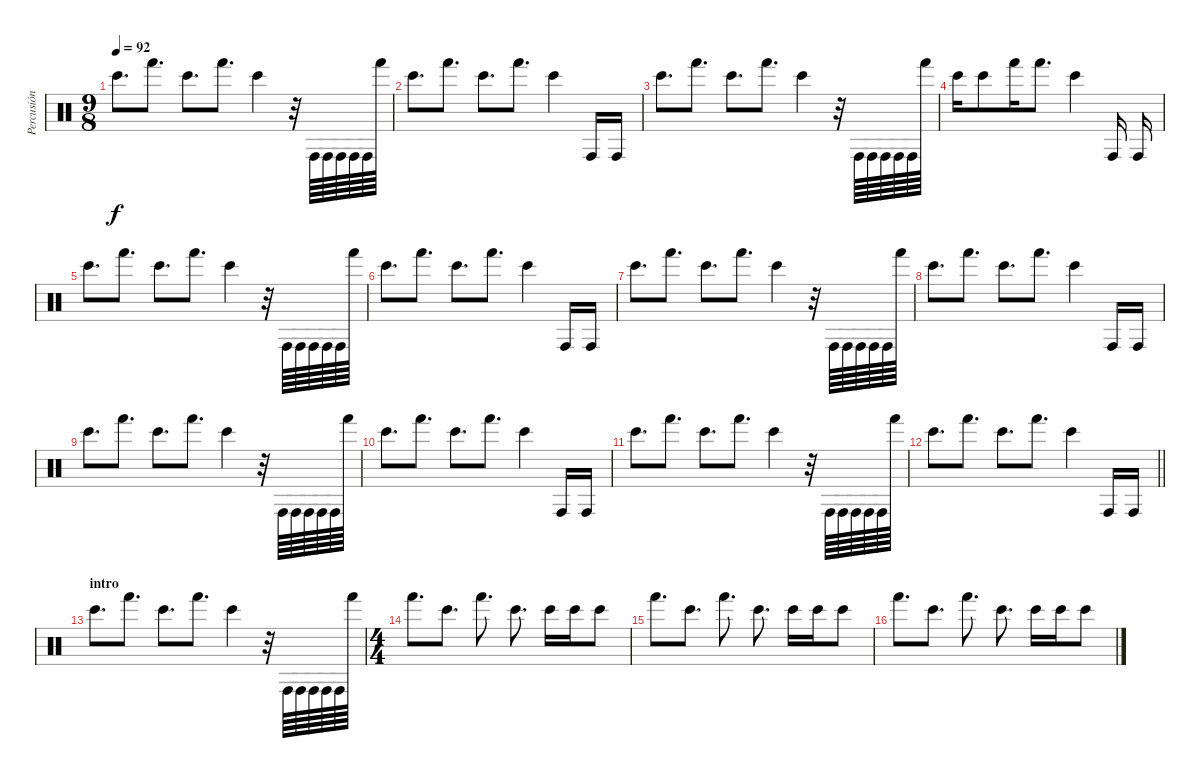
\track ("Percusión" "Percusión") {instrument percussion}
\staff {score}
\articulation defaults
\ts (9 8)
\tempo 92
\clef neutral
\ks c "Bongo High (hit)".8{d dy f} "Hand (hit)".8{d} "Bongo High (hit)".8{d} "Hand (hit)".8{d} "Bongo High (hit)".4
r.32 "Conga high (hit)".64 "Conga high (hit)".64 "Conga high (hit)".64 "Conga high (hit)".64 "Conga high (hit)".64 "Hand (hit)".64 |
"Bongo High (hit)".8{d} "Hand (hit)".8{d} "Bongo High (hit)".8{d} "Hand (hit)".8{d} "Bongo High (hit)".4 "Conga high (hit)".16 "Conga high (hit)".16 |
"Bongo High (hit)".8{d} "Hand (hit)".8{d} "Bongo High (hit)".8{d} "Hand (hit)".8{d} "Bongo High (hit)".4 r.32 "Conga high (hit)".64 "Conga high (hit)".64 "Conga high (hit)".64 "Conga high (hit)".64 "Conga high (hit)".64 "Hand (hit)".64 |
"Bongo High (hit)".16 "Bongo High (hit)".8 "Hand (hit)".16 "Hand (hit)".8{d} "Bongo High (hit)".4 "Conga high (hit)".16 "Conga high (hit)".16 |
"Bongo High (hit)".8{d} "Hand (hit)".8{d} "Bongo High (hit)".8{d} "Hand (hit)".8{d} "Bongo High (hit)".4 r.32 "Conga high (hit)".64 "Conga high (hit)".64 "Conga high (hit)".64 "Conga high (hit)".64 "Conga high (hit)".64 "Hand (hit)".64 |
"Bongo High (hit)".8{d} "Hand (hit)".8{d} "Bongo High (hit)".8{d} "Hand (hit)".8{d} "Bongo High (hit)".4 "Conga high (hit)".16 "Conga high (hit)".16 |
"Bongo High (hit)".8{d} "Hand (hit)".8{d} "Bongo High (hit)".8{d} "Hand (hit)".8{d} "Bongo High (hit)".4 r.32 "Conga high (hit)".64 "Conga high (hit)".64 "Conga high (hit)".64 "Conga high (hit)".64 "Conga high (hit)".64 "Hand (hit)".64 |
"Bongo High (hit)".8{d} "Hand (hit)".8{d} "Bongo High (hit)".8{d} "Hand (hit)".8{d} "Bongo High (hit)".4 "Conga high (hit)".16 "Conga high (hit)".16 |
"Bongo High (hit)".8{d} "Hand (hit)".8{d} "Bongo High (hit)".8{d} "Hand (hit)".8{d} "Bongo High (hit)".4 r.32 "Conga high (hit)".64 "Conga high (hit)".64 "Conga high (hit)".64 "Conga high (hit)".64 "Conga high (hit)".64 "Hand (hit)".64 |
"Bongo High (hit)".8{d} "Hand (hit)".8{d} "Bongo High (hit)".8{d} "Hand (hit)".8{d} "Bongo High (hit)".4 "Conga high (hit)".16 "Conga high (hit)".16 |
"Bongo High (hit)".8{d} "Hand (hit)".8{d} "Bongo High (hit)".8{d} "Hand (hit)".8{d} "Bongo High (hit)".4 r.32 "Conga high (hit)".64 "Conga high (hit)".64 "Conga high (hit)".64 "Conga high (hit)".64 "Conga high (hit)".64 "Hand (hit)".64 |
\barLineRight lightlight "Bongo High (hit)".8{d} "Hand (hit)".8{d} "Bongo High (hit)".8{d} "Hand (hit)".8{d} "Bongo High (hit)".4 "Conga high (hit)".16 "Conga high (hit)".16
|
\section ("" "intro")
"Bongo High (hit)".8{d} "Hand (hit)".8{d} "Bongo High (hit)".8{d} "Hand (hit)".8{d} "Bongo High (hit)".4 r.32 "Conga high (hit)".64 "Conga high (hit)".64 "Conga high (hit)".64 "Conga high (hit)".64 "Conga high (hit)".64 "Hand (hit)".64 |
\ts (4 4)
"Hand (hit)".8{d} "Bongo High (hit)".8{d} "Hand (hit)".8{d} "Bongo High (hit)".8{d} "Bongo High (hit)".16 "Bongo High (hit)".16 "Bongo High (hit)".8 |
"Hand (hit)".8{d} "Bongo High (hit)".8{d} "Hand (hit)".8{d} "Bongo High (hit)".8{d} "Bongo High (hit)".16 "Bongo High (hit)".16 "Bongo High (hit)".8 |
"Hand (hit)".8{d} "Bongo High (hit)".8{d} "Hand (hit)".8{d} "Bongo High (hit)".8{d} "Bongo High (hit)".16 "Bongo High (hit)".16 "Bongo High (hit)".8
